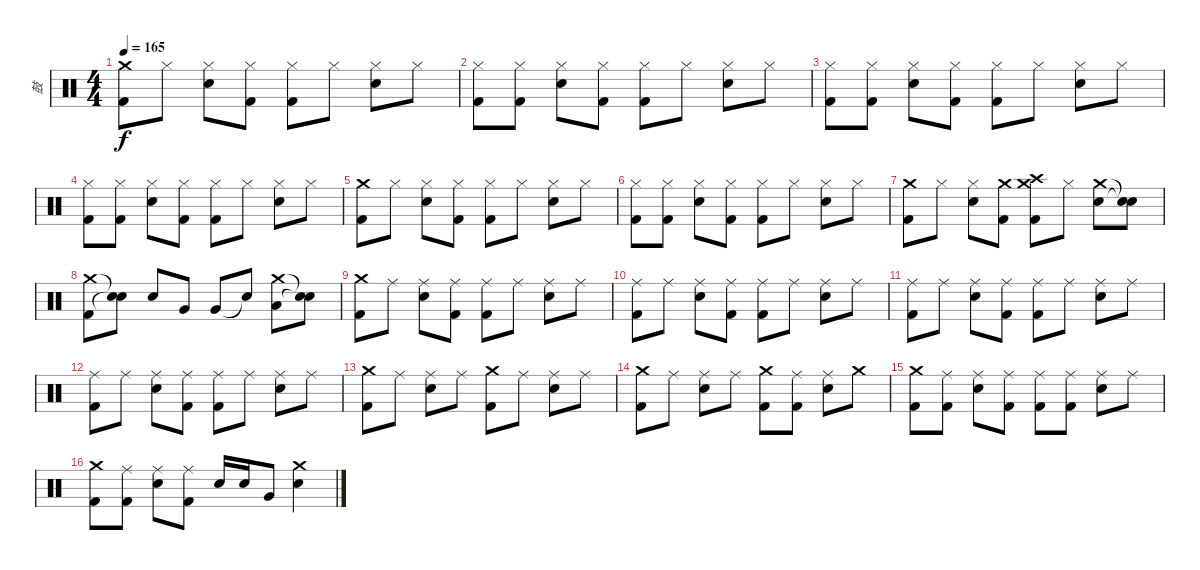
\track ("鼓" "鼓") {instrument percussion}
\staff {score}
\articulation defaults
\ts (4 4)
\tempo 165
\clef neutral
\ks c
("Crash medium (hit)" "Kick (hit) 2").8{dy f} "Hi-Hat (closed)".8 ("Hi-Hat (closed)" "Snare (hit) 2").8 ("Hi-Hat (closed)" "Kick (hit) 2").8 ("Hi-Hat (closed)" "Kick (hit) 2").8 "Hi-Hat (closed)".8 ("Hi-Hat (closed)" "Snare (hit) 2").8 "Hi-Hat (closed)".8 |
("Hi-Hat (closed)" "Kick (hit) 2").8 ("Hi-Hat (closed)" "Kick (hit) 2").8 ("Hi-Hat (closed)" "Snare (hit) 2").8 ("Hi-Hat (closed)" "Kick (hit) 2").8 ("Hi-Hat (closed)" "Kick (hit) 2").8 "Hi-Hat (closed)".8 ("Hi-Hat (closed)" "Snare (hit) 2").8 "Hi-Hat (closed)".8 |
("Hi-Hat (closed)" "Kick (hit) 2").8 ("Hi-Hat (closed)" "Kick (hit) 2").8 ("Hi-Hat (closed)" "Snare (hit) 2").8 ("Hi-Hat (closed)" "Kick (hit) 2").8 ("Hi-Hat (closed)" "Kick (hit) 2").8 "Hi-Hat (closed)".8 ("Hi-Hat (closed)" "Snare (hit) 2").8 "Hi-Hat (closed)".8 |
("Hi-Hat (closed)" "Kick (hit) 2").8 ("Hi-Hat (closed)" "Kick (hit) 2").8 ("Hi-Hat (closed)" "Snare (hit) 2").8 ("Hi-Hat (closed)" "Kick (hit) 2").8 ("Hi-Hat (closed)" "Kick (hit) 2").8 "Hi-Hat (closed)".8 ("Hi-Hat (closed)" "Snare (hit) 2").8 "Hi-Hat (closed)".8 |
("Crash medium (hit)" "Kick (hit) 2").8 "Hi-Hat (closed)".8 ("Hi-Hat (closed)" "Snare (hit) 2").8 ("Hi-Hat (closed)" "Kick (hit) 2").8 ("Hi-Hat (closed)" "Kick (hit) 2").8 "Hi-Hat (closed)".8 ("Hi-Hat (closed)" "Snare (hit) 2").8 "Hi-Hat (closed)".8 |
("Hi-Hat (closed)" "Kick (hit) 2").8 ("Hi-Hat (closed)" "Kick (hit) 2").8 ("Hi-Hat (closed)" "Snare (hit) 2").8 ("Hi-Hat (closed)" "Kick (hit) 2").8 ("Hi-Hat (closed)" "Kick (hit) 2").8 "Hi-Hat (closed)".8 ("Hi-Hat (closed)" "Snare (hit) 2").8 "Hi-Hat (closed)".8 |
("Crash medium (hit)" "Kick (hit) 2").8 "Hi-Hat (closed)".8 ("Hi-Hat (closed)" "Snare (hit) 2").8 ("Crash medium (hit)" "Kick (hit) 2").8 ("Crash medium (hit)" "Crash high (hit)" "Kick (hit) 2").8 "Hi-Hat (closed)".8 ("Crash medium (hit)" "Snare (hit) 2").8 ("Snare (hit)"{t} "Snare (hit)"{t}).8 |
("Crash medium (hit)" "Kick (hit) 2").8 ("Snare (hit)"{t} "Snare (hit)"{t}).8 "Snare (hit) 2".8 "Very Low Tom (hit)".8 "Very Low Tom (hit)".8 "Snare (hit)"{t}.8 ("Crash medium (hit)" "Low Floor Tom (hit)").8 ("Snare (hit)"{t} "Snare (hit)"{t}).8 |
("Crash medium (hit)" "Kick (hit) 2").8 "Ride (middle)".8 ("Ride (middle)" "Snare (hit) 2").8 ("Ride (middle)" "Kick (hit) 2").8 ("Ride (middle)" "Kick (hit) 2").8 "Ride (middle)".8 ("Ride (middle)" "Snare (hit) 2").8 "Ride (middle)".8 |
("Ride (middle)" "Kick (hit) 2").8 "Ride (middle)".8 ("Ride (middle)" "Snare (hit) 2").8 ("Ride (middle)" "Kick (hit) 2").8 ("Ride (middle)" "Kick (hit) 2").8 "Ride (middle)".8 ("Ride (middle)" "Snare (hit) 2").8 "Ride (middle)".8 |
("Ride (middle)" "Kick (hit) 2").8 "Ride (middle)".8 ("Ride (middle)" "Snare (hit) 2").8 ("Ride (middle)" "Kick (hit) 2").8 ("Ride (middle)" "Kick (hit) 2").8 "Ride (middle)".8 ("Ride (middle)" "Snare (hit) 2").8 "Ride (middle)".8 |
("Ride (middle)" "Kick (hit) 2").8 "Ride (middle)".8 ("Ride (middle)" "Snare (hit) 2").8 ("Ride (middle)" "Kick (hit) 2").8 ("Ride (middle)" "Kick (hit) 2").8 "Ride (middle)".8 ("Ride (middle)" "Snare (hit) 2").8 "Ride (middle)".8 |
("Crash medium (hit)" "Kick (hit) 2").8 "Ride (middle)".8 ("Ride (middle)" "Snare (hit) 2").8 "Ride (middle)".8 ("Crash medium (hit)" "Kick (hit) 2").8 "Ride (middle)".8 ("Ride (middle)" "Snare (hit) 2").8 "Ride (middle)".8 |
("Crash medium (hit)" "Kick (hit) 2").8 "Ride (middle)".8 ("Ride (middle)" "Snare (hit) 2").8 "Ride (middle)".8 ("Crash medium (hit)" "Kick (hit) 2").8 ("Ride (middle)" "Kick (hit) 2").8 ("Ride (middle)" "Snare (hit) 2").8 "Crash medium (hit)".8 |
("Crash medium (hit)" "Kick (hit) 2").8 ("Ride (middle)" "Kick (hit) 2").8 ("Ride (middle)" "Snare (hit) 2").8 ("Ride (middle)" "Kick (hit) 2").8 ("Ride (middle)" "Kick (hit) 2").8 ("Ride (middle)" "Kick (hit) 2").8 ("Ride (middle)" "Snare (hit) 2").8 "Ride (middle)".8 |
("Crash medium (hit)" "Kick (hit) 2").8 ("Ride (middle)" "Kick (hit) 2").8 ("Ride (middle)" "Snare (hit) 2").8 ("Ride (middle)" "Kick (hit) 2").8 "Snare (hit) 2".16 "Snare (hit) 2".16 "Very Low Tom (hit)".8 ("Crash medium (hit)" "Snare (hit) 2").4
